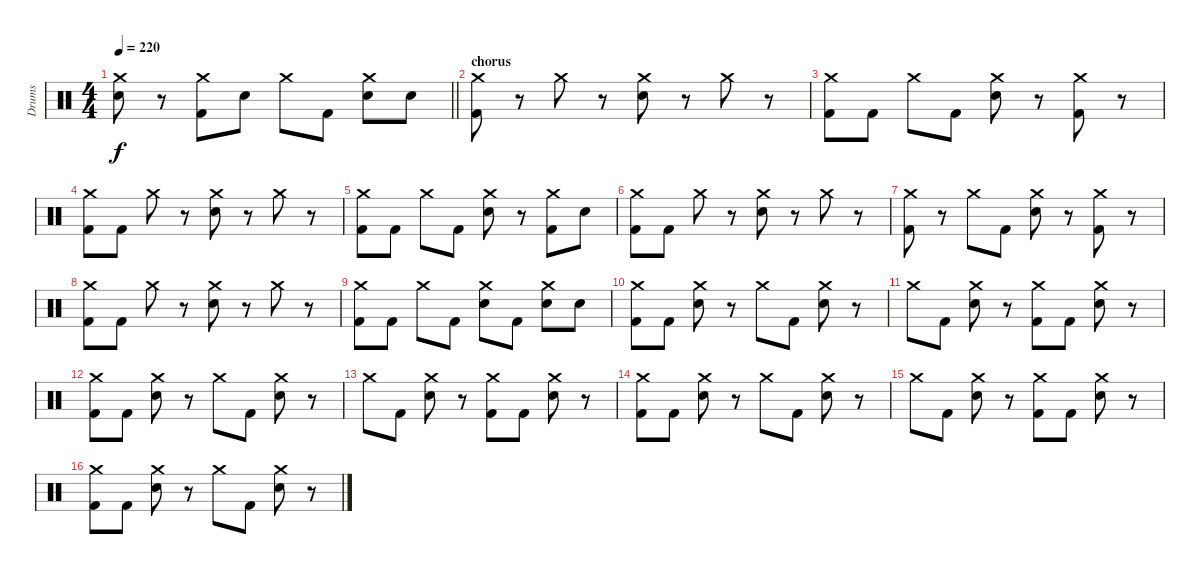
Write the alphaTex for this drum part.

\track ("Drums" "Drums") {instrument percussion}
\staff {score}
\articulation defaults
\ts (4 4)
\tempo 220
\clef neutral
\barLineRight lightlight
\ks c
("Crash medium (hit)" "Electric Snare (hit)").8{dy f} r.8 ("Crash medium (hit)" "Kick (hit) 2").8 "Electric Snare (hit)".8 "Crash medium (hit)".8 "Kick (hit) 2".8 ("Crash medium (hit)" "Electric Snare (hit)").8 "Electric Snare (hit)".8 |
\section ("" "chorus")
("Crash medium (hit)" "Kick (hit) 2").8 r.8 "Crash medium (hit)".8 r.8 ("Crash medium (hit)" "Electric Snare (hit)").8 r.8 "Crash medium (hit)".8 r.8 |
("Crash medium (hit)" "Kick (hit) 2").8 "Kick (hit) 2".8 "Crash medium (hit)".8 "Kick (hit) 2".8 ("Crash medium (hit)" "Electric Snare (hit)").8 r.8 ("Crash medium (hit)" "Kick (hit) 2").8 r.8 |
("Crash medium (hit)" "Kick (hit) 2").8 "Kick (hit) 2".8 "Crash medium (hit)".8 r.8 ("Crash medium (hit)" "Electric Snare (hit)").8 r.8 "Crash medium (hit)".8 r.8 |
("Crash medium (hit)" "Kick (hit) 2").8 "Kick (hit) 2".8 "Crash medium (hit)".8 "Kick (hit) 2".8 ("Crash medium (hit)" "Electric Snare (hit)").8 r.8 ("Crash medium (hit)" "Kick (hit) 2").8 "Electric Snare (hit)".8 |
("Crash medium (hit)" "Kick (hit) 2").8 "Kick (hit) 2".8 "Crash medium (hit)".8 r.8 ("Crash medium (hit)" "Electric Snare (hit)").8 r.8 "Crash medium (hit)".8 r.8 |
("Crash medium (hit)" "Kick (hit) 2").8 r.8 "Crash medium (hit)".8 "Kick (hit) 2".8 ("Crash medium (hit)" "Electric Snare (hit)").8 r.8 ("Crash medium (hit)" "Kick (hit) 2").8 r.8 |
("Crash medium (hit)" "Kick (hit) 2").8 "Kick (hit) 2".8 "Crash medium (hit)".8 r.8 ("Crash medium (hit)" "Electric Snare (hit)").8 r.8 "Crash medium (hit)".8 r.8 |
("Crash medium (hit)" "Kick (hit) 2").8 "Kick (hit) 2".8 "Crash medium (hit)".8 "Kick (hit) 2".8 ("Crash medium (hit)" "Electric Snare (hit)").8 "Kick (hit) 2".8 ("Crash medium (hit)" "Electric Snare (hit)").8 "Electric Snare (hit)".8 |
("Crash medium (hit)" "Kick (hit) 2").8 "Kick (hit) 2".8 ("Crash medium (hit)" "Electric Snare (hit)").8 r.8 "Crash medium (hit)".8 "Kick (hit) 2".8 ("Crash medium (hit)" "Electric Snare (hit)").8 r.8 |
"Crash medium (hit)".8 "Kick (hit) 2".8 ("Crash medium (hit)" "Electric Snare (hit)").8 r.8 ("Crash medium (hit)" "Kick (hit) 2").8 "Kick (hit) 2".8 ("Crash medium (hit)" "Electric Snare (hit)").8 r.8 |
("Crash medium (hit)" "Kick (hit) 2").8 "Kick (hit) 2".8 ("Crash medium (hit)" "Electric Snare (hit)").8 r.8 "Crash medium (hit)".8 "Kick (hit) 2".8 ("Crash medium (hit)" "Electric Snare (hit)").8 r.8 |
"Crash medium (hit)".8 "Kick (hit) 2".8 ("Crash medium (hit)" "Electric Snare (hit)").8 r.8 ("Crash medium (hit)" "Kick (hit) 2").8 "Kick (hit) 2".8 ("Crash medium (hit)" "Electric Snare (hit)").8 r.8 |
("Crash medium (hit)" "Kick (hit) 2").8 "Kick (hit) 2".8 ("Crash medium (hit)" "Electric Snare (hit)").8 r.8 "Crash medium (hit)".8 "Kick (hit) 2".8 ("Crash medium (hit)" "Electric Snare (hit)").8 r.8 |
"Crash medium (hit)".8 "Kick (hit) 2".8 ("Crash medium (hit)" "Electric Snare (hit)").8 r.8 ("Crash medium (hit)" "Kick (hit) 2").8 "Kick (hit) 2".8 ("Crash medium (hit)" "Electric Snare (hit)").8 r.8 |
("Crash medium (hit)" "Kick (hit) 2").8 "Kick (hit) 2".8 ("Crash medium (hit)" "Electric Snare (hit)").8 r.8 "Crash medium (hit)".8 "Kick (hit) 2".8 ("Crash medium (hit)" "Electric Snare (hit)").8 r.8
